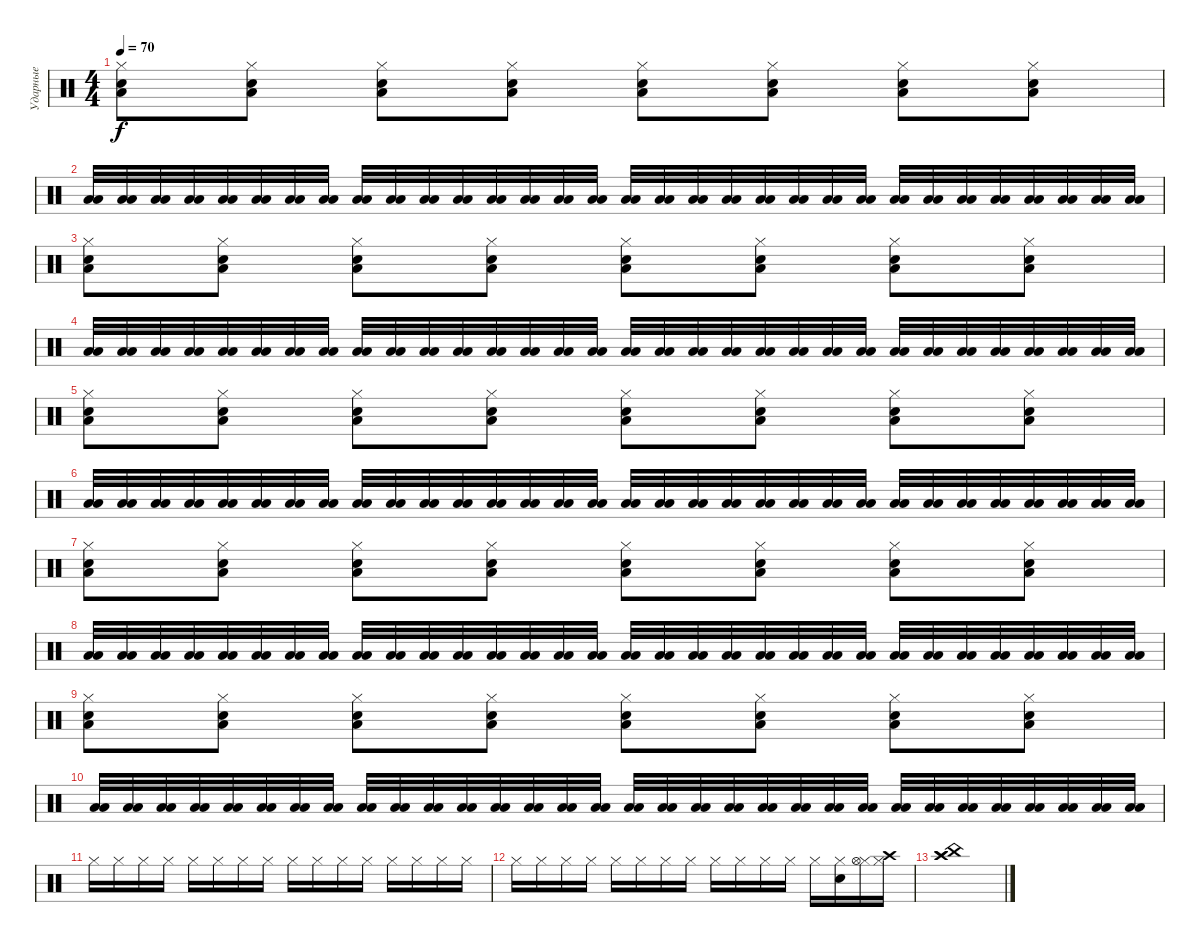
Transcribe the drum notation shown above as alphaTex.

\track ("Ударные" "Ударные") {instrument percussion}
\staff {score}
\articulation defaults
\ts (4 4)
\tempo 70
\clef neutral
\ks c
("Electric Snare (hit)" "Hi-Hat (closed)" "Low Floor Tom (hit)").8{dy f} ("Electric Snare (hit)" "Hi-Hat (closed)" "Low Floor Tom (hit)").8 ("Electric Snare (hit)" "Hi-Hat (closed)" "Low Floor Tom (hit)").8 ("Electric Snare (hit)" "Hi-Hat (closed)" "Low Floor Tom (hit)").8 ("Electric Snare (hit)" "Hi-Hat (closed)" "Low Floor Tom (hit)").8 ("Electric Snare (hit)" "Hi-Hat (closed)" "Low Floor Tom (hit)").8 ("Electric Snare (hit)" "Hi-Hat (closed)" "Low Floor Tom (hit)").8 ("Electric Snare (hit)" "Hi-Hat (closed)" "Low Floor Tom (hit)").8 |
("Low Floor Tom (hit)" "Low Floor Tom (hit)").32 ("Low Floor Tom (hit)" "Low Floor Tom (hit)").32 ("Low Floor Tom (hit)" "Low Floor Tom (hit)").32 ("Low Floor Tom (hit)" "Low Floor Tom (hit)").32 ("Low Floor Tom (hit)" "Low Floor Tom (hit)").32 ("Low Floor Tom (hit)" "Low Floor Tom (hit)").32 ("Low Floor Tom (hit)" "Low Floor Tom (hit)").32 ("Low Floor Tom (hit)" "Low Floor Tom (hit)").32 ("Low Floor Tom (hit)" "Low Floor Tom (hit)").32 ("Low Floor Tom (hit)" "Low Floor Tom (hit)").32 ("Low Floor Tom (hit)" "Low Floor Tom (hit)").32 ("Low Floor Tom (hit)" "Low Floor Tom (hit)").32 ("Low Floor Tom (hit)" "Low Floor Tom (hit)").32 ("Low Floor Tom (hit)" "Low Floor Tom (hit)").32 ("Low Floor Tom (hit)" "Low Floor Tom (hit)").32 ("Low Floor Tom (hit)" "Low Floor Tom (hit)").32 ("Low Floor Tom (hit)" "Low Floor Tom (hit)").32 ("Low Floor Tom (hit)" "Low Floor Tom (hit)").32 ("Low Floor Tom (hit)" "Low Floor Tom (hit)").32 ("Low Floor Tom (hit)" "Low Floor Tom (hit)").32 ("Low Floor Tom (hit)" "Low Floor Tom (hit)").32 ("Low Floor Tom (hit)" "Low Floor Tom (hit)").32 ("Low Floor Tom (hit)" "Low Floor Tom (hit)").32 ("Low Floor Tom (hit)" "Low Floor Tom (hit)").32 ("Low Floor Tom (hit)" "Low Floor Tom (hit)").32 ("Low Floor Tom (hit)" "Low Floor Tom (hit)").32 ("Low Floor Tom (hit)" "Low Floor Tom (hit)").32 ("Low Floor Tom (hit)" "Low Floor Tom (hit)").32 ("Low Floor Tom (hit)" "Low Floor Tom (hit)").32 ("Low Floor Tom (hit)" "Low Floor Tom (hit)").32 ("Low Floor Tom (hit)" "Low Floor Tom (hit)").32 ("Low Floor Tom (hit)" "Low Floor Tom (hit)").32 |
("Electric Snare (hit)" "Hi-Hat (closed)" "Low Floor Tom (hit)").8 ("Electric Snare (hit)" "Hi-Hat (closed)" "Low Floor Tom (hit)").8 ("Electric Snare (hit)" "Hi-Hat (closed)" "Low Floor Tom (hit)").8 ("Electric Snare (hit)" "Hi-Hat (closed)" "Low Floor Tom (hit)").8 ("Electric Snare (hit)" "Hi-Hat (closed)" "Low Floor Tom (hit)").8 ("Electric Snare (hit)" "Hi-Hat (closed)" "Low Floor Tom (hit)").8 ("Electric Snare (hit)" "Hi-Hat (closed)" "Low Floor Tom (hit)").8 ("Electric Snare (hit)" "Hi-Hat (closed)" "Low Floor Tom (hit)").8 |
("Low Floor Tom (hit)" "Low Floor Tom (hit)").32 ("Low Floor Tom (hit)" "Low Floor Tom (hit)").32 ("Low Floor Tom (hit)" "Low Floor Tom (hit)").32 ("Low Floor Tom (hit)" "Low Floor Tom (hit)").32 ("Low Floor Tom (hit)" "Low Floor Tom (hit)").32 ("Low Floor Tom (hit)" "Low Floor Tom (hit)").32 ("Low Floor Tom (hit)" "Low Floor Tom (hit)").32 ("Low Floor Tom (hit)" "Low Floor Tom (hit)").32 ("Low Floor Tom (hit)" "Low Floor Tom (hit)").32 ("Low Floor Tom (hit)" "Low Floor Tom (hit)").32 ("Low Floor Tom (hit)" "Low Floor Tom (hit)").32 ("Low Floor Tom (hit)" "Low Floor Tom (hit)").32 ("Low Floor Tom (hit)" "Low Floor Tom (hit)").32 ("Low Floor Tom (hit)" "Low Floor Tom (hit)").32 ("Low Floor Tom (hit)" "Low Floor Tom (hit)").32 ("Low Floor Tom (hit)" "Low Floor Tom (hit)").32 ("Low Floor Tom (hit)" "Low Floor Tom (hit)").32 ("Low Floor Tom (hit)" "Low Floor Tom (hit)").32 ("Low Floor Tom (hit)" "Low Floor Tom (hit)").32 ("Low Floor Tom (hit)" "Low Floor Tom (hit)").32 ("Low Floor Tom (hit)" "Low Floor Tom (hit)").32 ("Low Floor Tom (hit)" "Low Floor Tom (hit)").32 ("Low Floor Tom (hit)" "Low Floor Tom (hit)").32 ("Low Floor Tom (hit)" "Low Floor Tom (hit)").32 ("Low Floor Tom (hit)" "Low Floor Tom (hit)").32 ("Low Floor Tom (hit)" "Low Floor Tom (hit)").32 ("Low Floor Tom (hit)" "Low Floor Tom (hit)").32 ("Low Floor Tom (hit)" "Low Floor Tom (hit)").32 ("Low Floor Tom (hit)" "Low Floor Tom (hit)").32 ("Low Floor Tom (hit)" "Low Floor Tom (hit)").32 ("Low Floor Tom (hit)" "Low Floor Tom (hit)").32 ("Low Floor Tom (hit)" "Low Floor Tom (hit)").32 |
("Electric Snare (hit)" "Hi-Hat (closed)" "Low Floor Tom (hit)").8 ("Electric Snare (hit)" "Hi-Hat (closed)" "Low Floor Tom (hit)").8 ("Electric Snare (hit)" "Hi-Hat (closed)" "Low Floor Tom (hit)").8 ("Electric Snare (hit)" "Hi-Hat (closed)" "Low Floor Tom (hit)").8 ("Electric Snare (hit)" "Hi-Hat (closed)" "Low Floor Tom (hit)").8 ("Electric Snare (hit)" "Hi-Hat (closed)" "Low Floor Tom (hit)").8 ("Electric Snare (hit)" "Hi-Hat (closed)" "Low Floor Tom (hit)").8 ("Electric Snare (hit)" "Hi-Hat (closed)" "Low Floor Tom (hit)").8 |
("Low Floor Tom (hit)" "Low Floor Tom (hit)").32 ("Low Floor Tom (hit)" "Low Floor Tom (hit)").32 ("Low Floor Tom (hit)" "Low Floor Tom (hit)").32 ("Low Floor Tom (hit)" "Low Floor Tom (hit)").32 ("Low Floor Tom (hit)" "Low Floor Tom (hit)").32 ("Low Floor Tom (hit)" "Low Floor Tom (hit)").32 ("Low Floor Tom (hit)" "Low Floor Tom (hit)").32 ("Low Floor Tom (hit)" "Low Floor Tom (hit)").32 ("Low Floor Tom (hit)" "Low Floor Tom (hit)").32 ("Low Floor Tom (hit)" "Low Floor Tom (hit)").32 ("Low Floor Tom (hit)" "Low Floor Tom (hit)").32 ("Low Floor Tom (hit)" "Low Floor Tom (hit)").32 ("Low Floor Tom (hit)" "Low Floor Tom (hit)").32 ("Low Floor Tom (hit)" "Low Floor Tom (hit)").32 ("Low Floor Tom (hit)" "Low Floor Tom (hit)").32 ("Low Floor Tom (hit)" "Low Floor Tom (hit)").32 ("Low Floor Tom (hit)" "Low Floor Tom (hit)").32 ("Low Floor Tom (hit)" "Low Floor Tom (hit)").32 ("Low Floor Tom (hit)" "Low Floor Tom (hit)").32 ("Low Floor Tom (hit)" "Low Floor Tom (hit)").32 ("Low Floor Tom (hit)" "Low Floor Tom (hit)").32 ("Low Floor Tom (hit)" "Low Floor Tom (hit)").32 ("Low Floor Tom (hit)" "Low Floor Tom (hit)").32 ("Low Floor Tom (hit)" "Low Floor Tom (hit)").32 ("Low Floor Tom (hit)" "Low Floor Tom (hit)").32 ("Low Floor Tom (hit)" "Low Floor Tom (hit)").32 ("Low Floor Tom (hit)" "Low Floor Tom (hit)").32 ("Low Floor Tom (hit)" "Low Floor Tom (hit)").32 ("Low Floor Tom (hit)" "Low Floor Tom (hit)").32 ("Low Floor Tom (hit)" "Low Floor Tom (hit)").32 ("Low Floor Tom (hit)" "Low Floor Tom (hit)").32 ("Low Floor Tom (hit)" "Low Floor Tom (hit)").32 |
("Electric Snare (hit)" "Hi-Hat (closed)" "Low Floor Tom (hit)").8 ("Electric Snare (hit)" "Hi-Hat (closed)" "Low Floor Tom (hit)").8 ("Electric Snare (hit)" "Hi-Hat (closed)" "Low Floor Tom (hit)").8 ("Electric Snare (hit)" "Hi-Hat (closed)" "Low Floor Tom (hit)").8 ("Electric Snare (hit)" "Hi-Hat (closed)" "Low Floor Tom (hit)").8 ("Electric Snare (hit)" "Hi-Hat (closed)" "Low Floor Tom (hit)").8 ("Electric Snare (hit)" "Hi-Hat (closed)" "Low Floor Tom (hit)").8 ("Electric Snare (hit)" "Hi-Hat (closed)" "Low Floor Tom (hit)").8 |
("Low Floor Tom (hit)" "Low Floor Tom (hit)").32 ("Low Floor Tom (hit)" "Low Floor Tom (hit)").32 ("Low Floor Tom (hit)" "Low Floor Tom (hit)").32 ("Low Floor Tom (hit)" "Low Floor Tom (hit)").32 ("Low Floor Tom (hit)" "Low Floor Tom (hit)").32 ("Low Floor Tom (hit)" "Low Floor Tom (hit)").32 ("Low Floor Tom (hit)" "Low Floor Tom (hit)").32 ("Low Floor Tom (hit)" "Low Floor Tom (hit)").32 ("Low Floor Tom (hit)" "Low Floor Tom (hit)").32 ("Low Floor Tom (hit)" "Low Floor Tom (hit)").32 ("Low Floor Tom (hit)" "Low Floor Tom (hit)").32 ("Low Floor Tom (hit)" "Low Floor Tom (hit)").32 ("Low Floor Tom (hit)" "Low Floor Tom (hit)").32 ("Low Floor Tom (hit)" "Low Floor Tom (hit)").32 ("Low Floor Tom (hit)" "Low Floor Tom (hit)").32 ("Low Floor Tom (hit)" "Low Floor Tom (hit)").32 ("Low Floor Tom (hit)" "Low Floor Tom (hit)").32 ("Low Floor Tom (hit)" "Low Floor Tom (hit)").32 ("Low Floor Tom (hit)" "Low Floor Tom (hit)").32 ("Low Floor Tom (hit)" "Low Floor Tom (hit)").32 ("Low Floor Tom (hit)" "Low Floor Tom (hit)").32 ("Low Floor Tom (hit)" "Low Floor Tom (hit)").32 ("Low Floor Tom (hit)" "Low Floor Tom (hit)").32 ("Low Floor Tom (hit)" "Low Floor Tom (hit)").32 ("Low Floor Tom (hit)" "Low Floor Tom (hit)").32 ("Low Floor Tom (hit)" "Low Floor Tom (hit)").32 ("Low Floor Tom (hit)" "Low Floor Tom (hit)").32 ("Low Floor Tom (hit)" "Low Floor Tom (hit)").32 ("Low Floor Tom (hit)" "Low Floor Tom (hit)").32 ("Low Floor Tom (hit)" "Low Floor Tom (hit)").32 ("Low Floor Tom (hit)" "Low Floor Tom (hit)").32 ("Low Floor Tom (hit)" "Low Floor Tom (hit)").32 |
("Electric Snare (hit)" "Hi-Hat (closed)" "Low Floor Tom (hit)").8 ("Electric Snare (hit)" "Hi-Hat (closed)" "Low Floor Tom (hit)").8 ("Electric Snare (hit)" "Hi-Hat (closed)" "Low Floor Tom (hit)").8 ("Electric Snare (hit)" "Hi-Hat (closed)" "Low Floor Tom (hit)").8 ("Electric Snare (hit)" "Hi-Hat (closed)" "Low Floor Tom (hit)").8 ("Electric Snare (hit)" "Hi-Hat (closed)" "Low Floor Tom (hit)").8 ("Electric Snare (hit)" "Hi-Hat (closed)" "Low Floor Tom (hit)").8 ("Electric Snare (hit)" "Hi-Hat (closed)" "Low Floor Tom (hit)").8 |
("Low Floor Tom (hit)" "Low Floor Tom (hit)").32 ("Low Floor Tom (hit)" "Low Floor Tom (hit)").32 ("Low Floor Tom (hit)" "Low Floor Tom (hit)").32 ("Low Floor Tom (hit)" "Low Floor Tom (hit)").32 ("Low Floor Tom (hit)" "Low Floor Tom (hit)").32 ("Low Floor Tom (hit)" "Low Floor Tom (hit)").32 ("Low Floor Tom (hit)" "Low Floor Tom (hit)").32 ("Low Floor Tom (hit)" "Low Floor Tom (hit)").32 ("Low Floor Tom (hit)" "Low Floor Tom (hit)").32 ("Low Floor Tom (hit)" "Low Floor Tom (hit)").32 ("Low Floor Tom (hit)" "Low Floor Tom (hit)").32 ("Low Floor Tom (hit)" "Low Floor Tom (hit)").32 ("Low Floor Tom (hit)" "Low Floor Tom (hit)").32 ("Low Floor Tom (hit)" "Low Floor Tom (hit)").32 ("Low Floor Tom (hit)" "Low Floor Tom (hit)").32 ("Low Floor Tom (hit)" "Low Floor Tom (hit)").32 ("Low Floor Tom (hit)" "Low Floor Tom (hit)").32 ("Low Floor Tom (hit)" "Low Floor Tom (hit)").32 ("Low Floor Tom (hit)" "Low Floor Tom (hit)").32 ("Low Floor Tom (hit)" "Low Floor Tom (hit)").32 ("Low Floor Tom (hit)" "Low Floor Tom (hit)").32 ("Low Floor Tom (hit)" "Low Floor Tom (hit)").32 ("Low Floor Tom (hit)" "Low Floor Tom (hit)").32 ("Low Floor Tom (hit)" "Low Floor Tom (hit)").32 ("Low Floor Tom (hit)" "Low Floor Tom (hit)").32 ("Low Floor Tom (hit)" "Low Floor Tom (hit)").32 ("Low Floor Tom (hit)" "Low Floor Tom (hit)").32 ("Low Floor Tom (hit)" "Low Floor Tom (hit)").32 ("Low Floor Tom (hit)" "Low Floor Tom (hit)").32 ("Low Floor Tom (hit)" "Low Floor Tom (hit)").32 ("Low Floor Tom (hit)" "Low Floor Tom (hit)").32 ("Low Floor Tom (hit)" "Low Floor Tom (hit)").32 |
"Hi-Hat (closed)".16 "Hi-Hat (closed)".16 "Hi-Hat (closed)".16 "Hi-Hat (closed)".16 "Hi-Hat (closed)".16 "Hi-Hat (closed)".16 "Hi-Hat (closed)".16 "Hi-Hat (closed)".16 "Hi-Hat (closed)".16 "Hi-Hat (closed)".16 "Hi-Hat (closed)".16 "Hi-Hat (closed)".16 "Hi-Hat (closed)".16 "Hi-Hat (closed)".16 "Hi-Hat (closed)".16 "Hi-Hat (closed)".16 |
"Hi-Hat (closed)".16 "Hi-Hat (closed)".16 "Hi-Hat (closed)".16 "Hi-Hat (closed)".16 "Hi-Hat (closed)".16 "Hi-Hat (closed)".16 "Hi-Hat (closed)".16 "Hi-Hat (closed)".16 "Hi-Hat (closed)".16 "Hi-Hat (closed)".16 "Hi-Hat (closed)".16 "Hi-Hat (closed)".16 "Hi-Hat (closed)".16 ("Hi-Hat (closed)" "Electric Snare (hit)").16 ("Hi-Hat (closed)" "Hi-Hat (open)").16 ("Hi-Hat (closed)" "Crash high (hit)").16 |
("Crash high (hit)" "Crash high (hit)" "China (hit)").1
